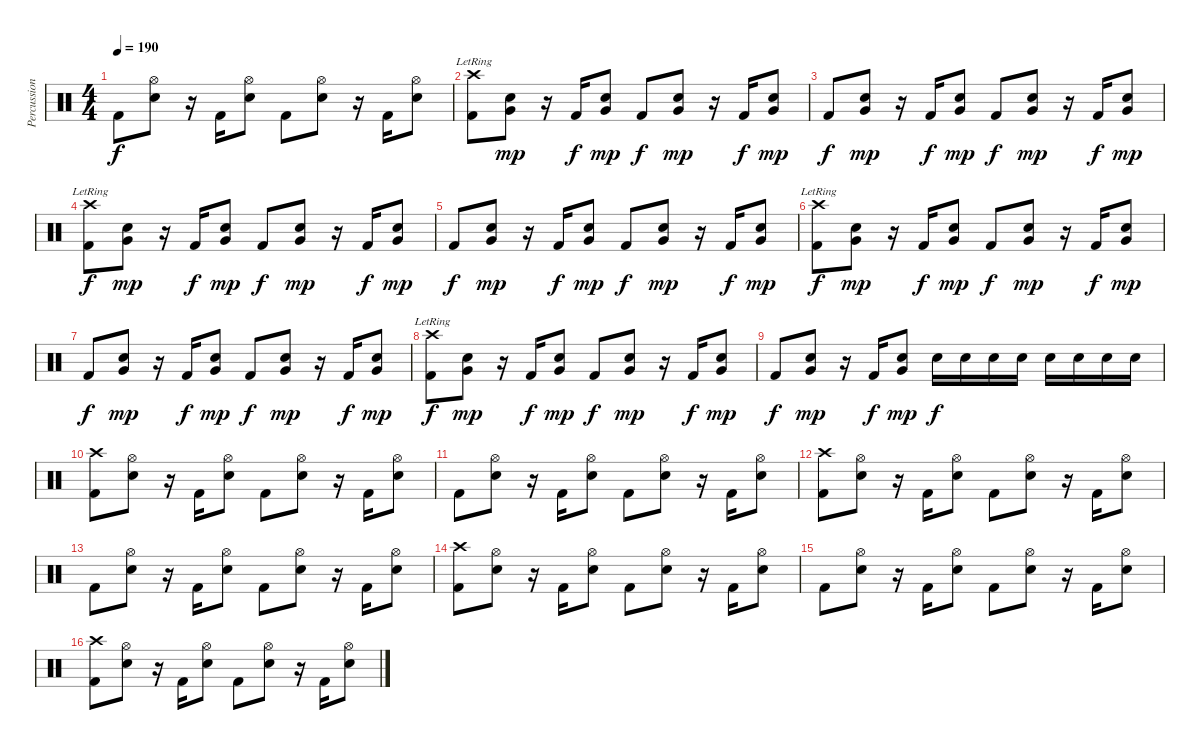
\track ("Percussions" "Percussion") {instrument percussion}
\staff {score}
\articulation defaults
\ts (4 4)
\tempo 190
\clef neutral
\ks c "Kick (hit) 2".8{dy f}
("Hi-Hat (open)" "Electric Snare (hit)").8 r.16 "Kick (hit) 2".16 ("Hi-Hat (open)" "Electric Snare (hit)").8 "Kick (hit) 2".8 ("Hi-Hat (open)" "Electric Snare (hit)").8 r.16 "Kick (hit) 2".16 ("Hi-Hat (open)" "Electric Snare (hit)").8 |
("Crash high (hit)"{lr} "Kick (hit) 2").8 ("Electric Snare (hit)" "Very Low Tom (hit)").8{dy mp} r.16 "Kick (hit) 2".16{dy f} ("Electric Snare (hit)" "Very Low Tom (hit)").8{dy mp} "Kick (hit) 2".8{dy f} ("Electric Snare (hit)" "Very Low Tom (hit)").8{dy mp} r.16 "Kick (hit) 2".16{dy f} ("Electric Snare (hit)" "Very Low Tom (hit)").8{dy mp} |
"Kick (hit) 2".8{dy f} ("Electric Snare (hit)" "Very Low Tom (hit)").8{dy mp} r.16 "Kick (hit) 2".16{dy f} ("Electric Snare (hit)" "Very Low Tom (hit)").8{dy mp} "Kick (hit) 2".8{dy f} ("Electric Snare (hit)" "Very Low Tom (hit)").8{dy mp} r.16 "Kick (hit) 2".16{dy f} ("Electric Snare (hit)" "Very Low Tom (hit)").8{dy mp} |
("Crash high (hit)"{lr} "Kick (hit) 2").8{dy f} ("Electric Snare (hit)" "Very Low Tom (hit)").8{dy mp} r.16 "Kick (hit) 2".16{dy f} ("Electric Snare (hit)" "Very Low Tom (hit)").8{dy mp} "Kick (hit) 2".8{dy f} ("Electric Snare (hit)" "Very Low Tom (hit)").8{dy mp} r.16 "Kick (hit) 2".16{dy f} ("Electric Snare (hit)" "Very Low Tom (hit)").8{dy mp} |
"Kick (hit) 2".8{dy f} ("Electric Snare (hit)" "Very Low Tom (hit)").8{dy mp} r.16 "Kick (hit) 2".16{dy f} ("Electric Snare (hit)" "Very Low Tom (hit)").8{dy mp} "Kick (hit) 2".8{dy f} ("Electric Snare (hit)" "Very Low Tom (hit)").8{dy mp} r.16 "Kick (hit) 2".16{dy f} ("Electric Snare (hit)" "Very Low Tom (hit)").8{dy mp} |
("Crash high (hit)"{lr} "Kick (hit) 2").8{dy f} ("Electric Snare (hit)" "Very Low Tom (hit)").8{dy mp} r.16 "Kick (hit) 2".16{dy f} ("Electric Snare (hit)" "Very Low Tom (hit)").8{dy mp} "Kick (hit) 2".8{dy f} ("Electric Snare (hit)" "Very Low Tom (hit)").8{dy mp} r.16 "Kick (hit) 2".16{dy f} ("Electric Snare (hit)" "Very Low Tom (hit)").8{dy mp} |
"Kick (hit) 2".8{dy f} ("Electric Snare (hit)" "Very Low Tom (hit)").8{dy mp} r.16 "Kick (hit) 2".16{dy f} ("Electric Snare (hit)" "Very Low Tom (hit)").8{dy mp} "Kick (hit) 2".8{dy f} ("Electric Snare (hit)" "Very Low Tom (hit)").8{dy mp} r.16 "Kick (hit) 2".16{dy f} ("Electric Snare (hit)" "Very Low Tom (hit)").8{dy mp} |
("Crash high (hit)"{lr} "Kick (hit) 2").8{dy f} ("Electric Snare (hit)" "Very Low Tom (hit)").8{dy mp} r.16 "Kick (hit) 2".16{dy f} ("Electric Snare (hit)" "Very Low Tom (hit)").8{dy mp} "Kick (hit) 2".8{dy f} ("Electric Snare (hit)" "Very Low Tom (hit)").8{dy mp} r.16 "Kick (hit) 2".16{dy f} ("Electric Snare (hit)" "Very Low Tom (hit)").8{dy mp} |
"Kick (hit) 2".8{dy f} ("Electric Snare (hit)" "Very Low Tom (hit)").8{dy mp} r.16 "Kick (hit) 2".16{dy f} ("Electric Snare (hit)" "Very Low Tom (hit)").8{dy mp} "Electric Snare (hit)".16{dy f} "Electric Snare (hit)".16 "Electric Snare (hit)".16 "Electric Snare (hit)".16 "Electric Snare (hit)".16 "Electric Snare (hit)".16 "Electric Snare (hit)".16 "Electric Snare (hit)".16 |
("Crash high (hit)" "Kick (hit) 2").8 ("Hi-Hat (open)" "Electric Snare (hit)").8 r.16 "Kick (hit) 2".16 ("Hi-Hat (open)" "Electric Snare (hit)").8 "Kick (hit) 2".8 ("Hi-Hat (open)" "Electric Snare (hit)").8 r.16 "Kick (hit) 2".16 ("Hi-Hat (open)" "Electric Snare (hit)").8 |
"Kick (hit) 2".8 ("Hi-Hat (open)" "Electric Snare (hit)").8 r.16 "Kick (hit) 2".16 ("Hi-Hat (open)" "Electric Snare (hit)").8 "Kick (hit) 2".8 ("Hi-Hat (open)" "Electric Snare (hit)").8 r.16 "Kick (hit) 2".16 ("Hi-Hat (open)" "Electric Snare (hit)").8 |
("Crash high (hit)" "Kick (hit) 2").8 ("Hi-Hat (open)" "Electric Snare (hit)").8 r.16 "Kick (hit) 2".16 ("Hi-Hat (open)" "Electric Snare (hit)").8 "Kick (hit) 2".8 ("Hi-Hat (open)" "Electric Snare (hit)").8 r.16 "Kick (hit) 2".16 ("Hi-Hat (open)" "Electric Snare (hit)").8 |
"Kick (hit) 2".8 ("Hi-Hat (open)" "Electric Snare (hit)").8 r.16 "Kick (hit) 2".16 ("Hi-Hat (open)" "Electric Snare (hit)").8 "Kick (hit) 2".8 ("Hi-Hat (open)" "Electric Snare (hit)").8 r.16 "Kick (hit) 2".16 ("Hi-Hat (open)" "Electric Snare (hit)").8 |
("Crash high (hit)" "Kick (hit) 2").8 ("Hi-Hat (open)" "Electric Snare (hit)").8 r.16 "Kick (hit) 2".16 ("Hi-Hat (open)" "Electric Snare (hit)").8 "Kick (hit) 2".8 ("Hi-Hat (open)" "Electric Snare (hit)").8 r.16 "Kick (hit) 2".16 ("Hi-Hat (open)" "Electric Snare (hit)").8 |
"Kick (hit) 2".8 ("Hi-Hat (open)" "Electric Snare (hit)").8 r.16 "Kick (hit) 2".16 ("Hi-Hat (open)" "Electric Snare (hit)").8 "Kick (hit) 2".8 ("Hi-Hat (open)" "Electric Snare (hit)").8 r.16 "Kick (hit) 2".16 ("Hi-Hat (open)" "Electric Snare (hit)").8 |
("Crash high (hit)" "Kick (hit) 2").8 ("Hi-Hat (open)" "Electric Snare (hit)").8 r.16 "Kick (hit) 2".16 ("Hi-Hat (open)" "Electric Snare (hit)").8 "Kick (hit) 2".8 ("Hi-Hat (open)" "Electric Snare (hit)").8 r.16 "Kick (hit) 2".16 ("Hi-Hat (open)" "Electric Snare (hit)").8
